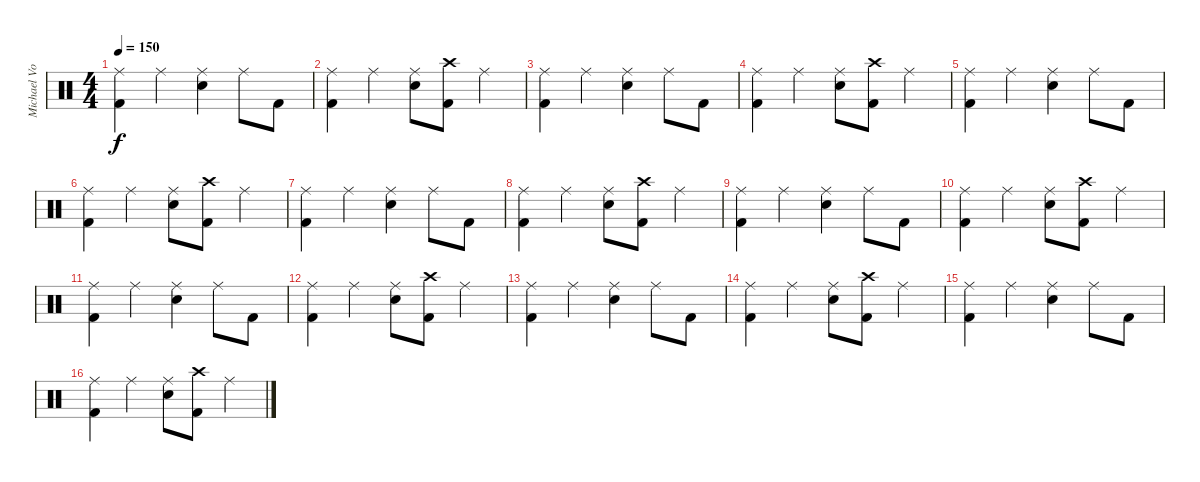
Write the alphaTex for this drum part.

\track ("Michael Von Knorring" "Michael Vo") {instrument percussion}
\staff {score}
\articulation defaults
\ts (4 4)
\tempo 150
\clef neutral
\ks c
("Ride (middle)" "Kick (hit) 2").4{dy f} "Ride (middle)".4 ("Ride (middle)" "Snare (hit) 2").4 "Ride (middle)".8 "Kick (hit) 2".8 |
("Ride (middle)" "Kick (hit) 2").4 "Ride (middle)".4 ("Ride (middle)" "Snare (hit) 2").8 ("Crash high (hit)" "Kick (hit) 2").8 "Ride (middle)".4 |
("Ride (middle)" "Kick (hit) 2").4 "Ride (middle)".4 ("Ride (middle)" "Snare (hit) 2").4 "Ride (middle)".8 "Kick (hit) 2".8 |
("Ride (middle)" "Kick (hit) 2").4 "Ride (middle)".4 ("Ride (middle)" "Snare (hit) 2").8 ("Crash high (hit)" "Kick (hit) 2").8 "Ride (middle)".4 |
("Ride (middle)" "Kick (hit) 2").4 "Ride (middle)".4 ("Ride (middle)" "Snare (hit) 2").4 "Ride (middle)".8 "Kick (hit) 2".8 |
("Ride (middle)" "Kick (hit) 2").4 "Ride (middle)".4 ("Ride (middle)" "Snare (hit) 2").8 ("Crash high (hit)" "Kick (hit) 2").8 "Ride (middle)".4 |
("Ride (middle)" "Kick (hit) 2").4 "Ride (middle)".4 ("Ride (middle)" "Snare (hit) 2").4 "Ride (middle)".8 "Kick (hit) 2".8 |
("Ride (middle)" "Kick (hit) 2").4 "Ride (middle)".4 ("Ride (middle)" "Snare (hit) 2").8 ("Crash high (hit)" "Kick (hit) 2").8 "Ride (middle)".4 |
("Ride (middle)" "Kick (hit) 2").4 "Ride (middle)".4 ("Ride (middle)" "Snare (hit) 2").4 "Ride (middle)".8 "Kick (hit) 2".8 |
("Ride (middle)" "Kick (hit) 2").4 "Ride (middle)".4 ("Ride (middle)" "Snare (hit) 2").8 ("Crash high (hit)" "Kick (hit) 2").8 "Ride (middle)".4 |
("Ride (middle)" "Kick (hit) 2").4 "Ride (middle)".4 ("Ride (middle)" "Snare (hit) 2").4 "Ride (middle)".8 "Kick (hit) 2".8 |
("Ride (middle)" "Kick (hit) 2").4 "Ride (middle)".4 ("Ride (middle)" "Snare (hit) 2").8 ("Crash high (hit)" "Kick (hit) 2").8 "Ride (middle)".4 |
("Ride (middle)" "Kick (hit) 2").4 "Ride (middle)".4 ("Ride (middle)" "Snare (hit) 2").4 "Ride (middle)".8 "Kick (hit) 2".8 |
("Ride (middle)" "Kick (hit) 2").4 "Ride (middle)".4 ("Ride (middle)" "Snare (hit) 2").8 ("Crash high (hit)" "Kick (hit) 2").8 "Ride (middle)".4 |
("Ride (middle)" "Kick (hit) 2").4 "Ride (middle)".4 ("Ride (middle)" "Snare (hit) 2").4 "Ride (middle)".8 "Kick (hit) 2".8 |
("Ride (middle)" "Kick (hit) 2").4 "Ride (middle)".4 ("Ride (middle)" "Snare (hit) 2").8 ("Crash high (hit)" "Kick (hit) 2").8 "Ride (middle)".4
